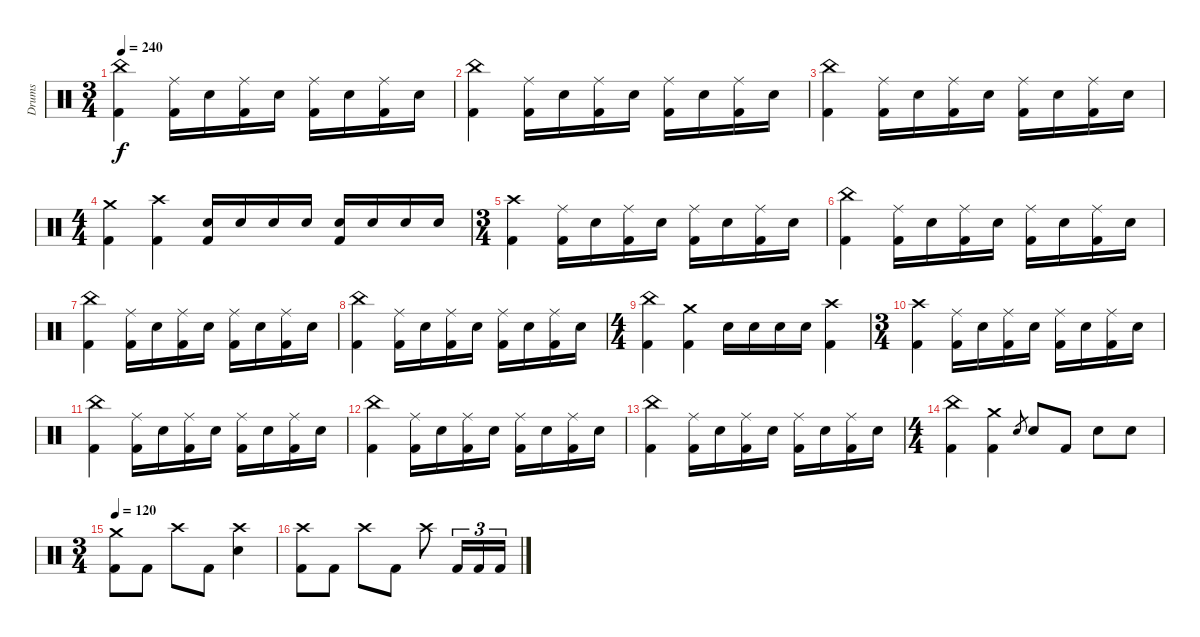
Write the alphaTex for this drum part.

\track ("Drums" "Drums") {instrument percussion}
\staff {score}
\articulation defaults
\ts (3 4)
\tempo 240
\clef neutral
\ks c
("China (hit)" "Kick (hit) 2").4{dy f} ("Ride (middle)" "Kick (hit) 2").16 "Electric Snare (hit)".16 ("Ride (middle)" "Kick (hit) 2").16 "Electric Snare (hit)".16 ("Ride (middle)" "Kick (hit) 2").16 "Electric Snare (hit)".16 ("Ride (middle)" "Kick (hit) 2").16 "Electric Snare (hit)".16 |
("China (hit)" "Kick (hit) 2").4 ("Ride (middle)" "Kick (hit) 2").16 "Electric Snare (hit)".16 ("Ride (middle)" "Kick (hit) 2").16 "Electric Snare (hit)".16 ("Ride (middle)" "Kick (hit) 2").16 "Electric Snare (hit)".16 ("Ride (middle)" "Kick (hit) 2").16 "Electric Snare (hit)".16 |
("China (hit)" "Kick (hit) 2").4 ("Ride (middle)" "Kick (hit) 2").16 "Electric Snare (hit)".16 ("Ride (middle)" "Kick (hit) 2").16 "Electric Snare (hit)".16 ("Ride (middle)" "Kick (hit) 2").16 "Electric Snare (hit)".16 ("Ride (middle)" "Kick (hit) 2").16 "Electric Snare (hit)".16 |
\ts (4 4)
("Crash medium (hit)" "Kick (hit) 2").4 ("Crash high (hit)" "Kick (hit) 2").4 ("Kick (hit) 2" "Electric Snare (hit)").16 "Electric Snare (hit)".16 "Electric Snare (hit)".16 "Electric Snare (hit)".16 ("Kick (hit) 2" "Electric Snare (hit)").16 "Electric Snare (hit)".16 "Electric Snare (hit)".16 "Electric Snare (hit)".16 |
\ts (3 4)
("Crash high (hit)" "Kick (hit) 2").4 ("Ride (middle)" "Kick (hit) 2").16 "Electric Snare (hit)".16 ("Ride (middle)" "Kick (hit) 2").16 "Electric Snare (hit)".16 ("Ride (middle)" "Kick (hit) 2").16 "Electric Snare (hit)".16 ("Ride (middle)" "Kick (hit) 2").16 "Electric Snare (hit)".16 |
("China (hit)" "Kick (hit) 2").4 ("Ride (middle)" "Kick (hit) 2").16 "Electric Snare (hit)".16 ("Ride (middle)" "Kick (hit) 2").16 "Electric Snare (hit)".16 ("Ride (middle)" "Kick (hit) 2").16 "Electric Snare (hit)".16 ("Ride (middle)" "Kick (hit) 2").16 "Electric Snare (hit)".16 |
("China (hit)" "Kick (hit) 2").4 ("Ride (middle)" "Kick (hit) 2").16 "Electric Snare (hit)".16 ("Ride (middle)" "Kick (hit) 2").16 "Electric Snare (hit)".16 ("Ride (middle)" "Kick (hit) 2").16 "Electric Snare (hit)".16 ("Ride (middle)" "Kick (hit) 2").16 "Electric Snare (hit)".16 |
("China (hit)" "Kick (hit) 2").4 ("Ride (middle)" "Kick (hit) 2").16 "Electric Snare (hit)".16 ("Ride (middle)" "Kick (hit) 2").16 "Electric Snare (hit)".16 ("Ride (middle)" "Kick (hit) 2").16 "Electric Snare (hit)".16 ("Ride (middle)" "Kick (hit) 2").16 "Electric Snare (hit)".16 |
\ts (4 4)
("China (hit)" "Kick (hit) 2").4 ("Crash medium (hit)" "Kick (hit) 2").4 "Electric Snare (hit)".16 "Electric Snare (hit)".16 "Electric Snare (hit)".16 "Electric Snare (hit)".16 ("Crash high (hit)" "Kick (hit) 2").4 |
\ts (3 4)
("Crash high (hit)" "Kick (hit) 2").4 ("Ride (middle)" "Kick (hit) 2").16 "Electric Snare (hit)".16 ("Ride (middle)" "Kick (hit) 2").16 "Electric Snare (hit)".16 ("Ride (middle)" "Kick (hit) 2").16 "Electric Snare (hit)".16 ("Ride (middle)" "Kick (hit) 2").16 "Electric Snare (hit)".16 |
("China (hit)" "Kick (hit) 2").4 ("Ride (middle)" "Kick (hit) 2").16 "Electric Snare (hit)".16 ("Ride (middle)" "Kick (hit) 2").16 "Electric Snare (hit)".16 ("Ride (middle)" "Kick (hit) 2").16 "Electric Snare (hit)".16 ("Ride (middle)" "Kick (hit) 2").16 "Electric Snare (hit)".16 |
("China (hit)" "Kick (hit) 2").4 ("Ride (middle)" "Kick (hit) 2").16 "Electric Snare (hit)".16 ("Ride (middle)" "Kick (hit) 2").16 "Electric Snare (hit)".16 ("Ride (middle)" "Kick (hit) 2").16 "Electric Snare (hit)".16 ("Ride (middle)" "Kick (hit) 2").16 "Electric Snare (hit)".16 |
("China (hit)" "Kick (hit) 2").4 ("Ride (middle)" "Kick (hit) 2").16 "Electric Snare (hit)".16 ("Ride (middle)" "Kick (hit) 2").16 "Electric Snare (hit)".16 ("Ride (middle)" "Kick (hit) 2").16 "Electric Snare (hit)".16 ("Ride (middle)" "Kick (hit) 2").16 "Electric Snare (hit)".16 |
\ts (4 4)
("China (hit)" "Kick (hit) 2").4 ("Crash medium (hit)" "Kick (hit) 2").4 "Electric Snare (hit)".8{gr} "Electric Snare (hit)".8 "Kick (hit) 2".8 "Electric Snare (hit)".8 "Electric Snare (hit)".8 |
\ts (3 4)
\tempo 120
("Crash medium (hit)" "Kick (hit) 2").8 "Kick (hit) 2".8 "Crash high (hit)".8 "Kick (hit) 2".8 ("Crash high (hit)" "Electric Snare (hit)").4 |
("Crash high (hit)" "Kick (hit) 2").8 "Kick (hit) 2".8 "Crash high (hit)".8 "Kick (hit) 2".8 "Crash high (hit)".8 "Kick (hit) 2".16{tu (3 2)} "Kick (hit) 2".16{tu (3 2)} "Kick (hit) 2".16{tu (3 2)}
